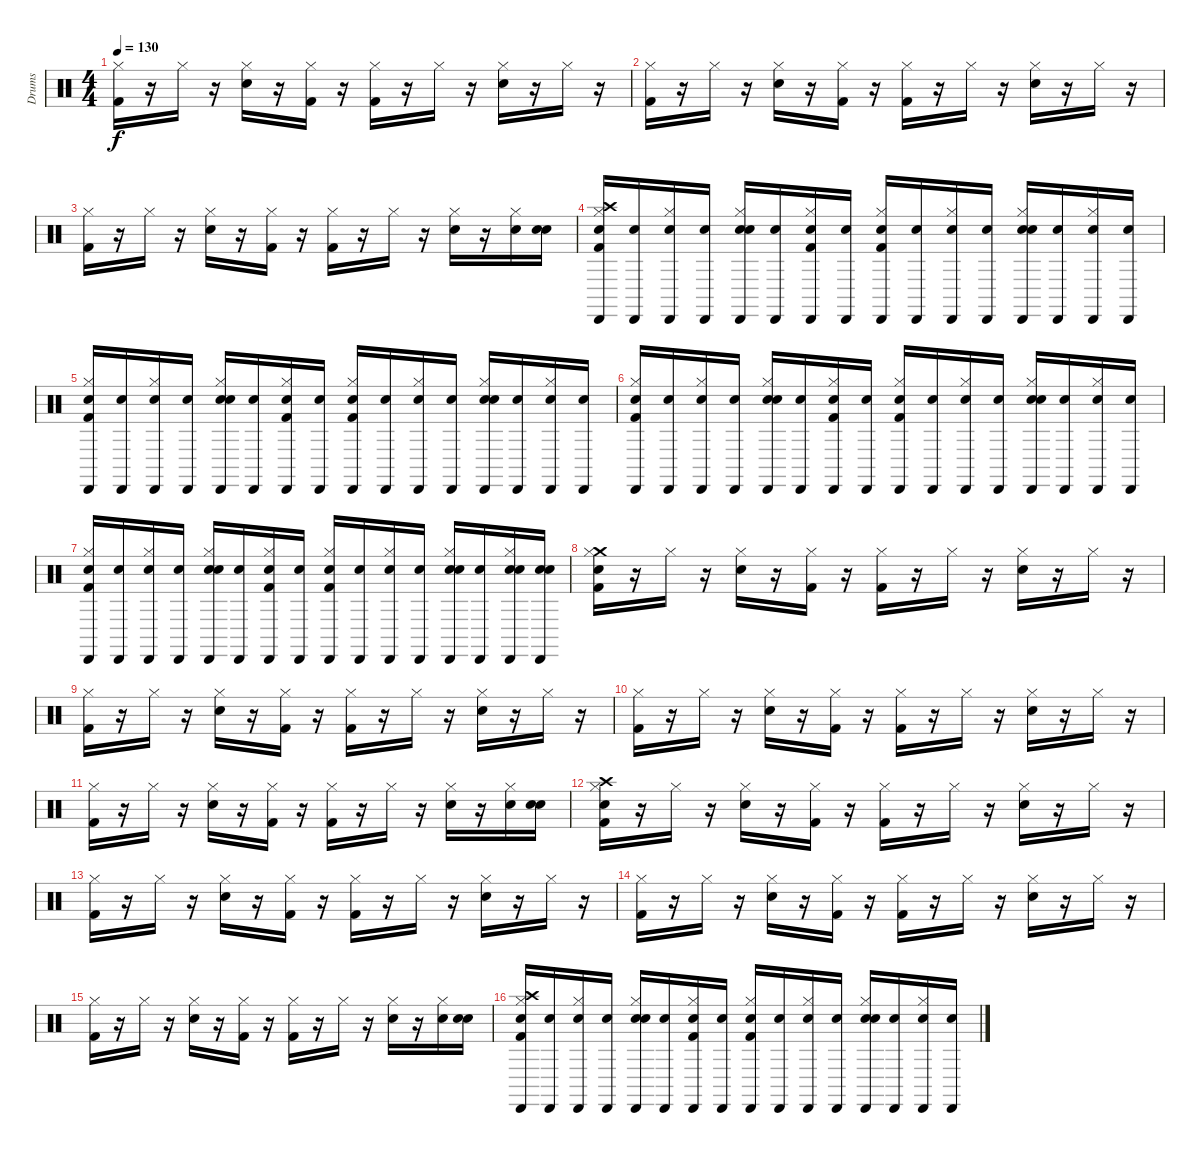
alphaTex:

\track ("Drums" "Drums") {instrument percussion}
\staff {score}
\articulation defaults
\ts (4 4)
\tempo 130
\clef neutral
\ks c
("Kick (hit) 2" "Hi-Hat (closed)").16{dy f} r.16 "Hi-Hat (closed)".16 r.16 ("Hi-Hat (closed)" "Snare (hit) 2").16 r.16 ("Hi-Hat (closed)" "Kick (hit) 2").16 r.16 ("Kick (hit) 2" "Hi-Hat (closed)").16 r.16 "Hi-Hat (closed)".16 r.16 ("Hi-Hat (closed)" "Snare (hit) 2").16 r.16 "Hi-Hat (closed)".16 r.16 |
("Hi-Hat (closed)" "Kick (hit) 2").16 r.16 "Hi-Hat (closed)".16 r.16 ("Hi-Hat (closed)" "Snare (hit) 2").16 r.16 ("Kick (hit) 2" "Hi-Hat (closed)").16 r.16 ("Hi-Hat (closed)" "Kick (hit) 2").16 r.16 "Hi-Hat (closed)".16 r.16 ("Hi-Hat (closed)" "Snare (hit) 2").16 r.16 "Hi-Hat (closed)".16 r.16 |
("Hi-Hat (closed)" "Kick (hit) 2").16 r.16 "Hi-Hat (closed)".16 r.16 ("Hi-Hat (closed)" "Snare (hit) 2").16 r.16 ("Hi-Hat (closed)" "Kick (hit) 2").16 r.16 ("Hi-Hat (closed)" "Kick (hit) 2").16 r.16 "Hi-Hat (closed)".16 r.16 ("Hi-Hat (closed)" "Snare (hit) 2").16 r.16 ("Hi-Hat (closed)" "Snare (hit) 2").16 ("Snare (hit)" "Snare (hit) 2").16 |
("Snare (hit)" "Hi-Hat (closed)" "Crash high (hit)" "Cabasa (hit)" "Kick (hit) 2").16 ("Snare (hit)" "Cabasa (hit)").16 ("Snare (hit)" "Cabasa (hit)" "Hi-Hat (closed)").16 ("Snare (hit)" "Cabasa (hit)").16 ("Snare (hit)" "Snare (hit) 2" "Cabasa (hit)" "Hi-Hat (closed)").16 ("Snare (hit)" "Cabasa (hit)").16 ("Snare (hit)" "Hi-Hat (closed)" "Kick (hit) 2" "Cabasa (hit)").16 ("Snare (hit)" "Cabasa (hit)").16 ("Snare (hit)" "Cabasa (hit)" "Kick (hit) 2" "Hi-Hat (closed)").16 ("Snare (hit)" "Cabasa (hit)").16 ("Snare (hit)" "Hi-Hat (closed)" "Cabasa (hit)").16 ("Snare (hit)" "Cabasa (hit)").16 ("Snare (hit)" "Snare (hit) 2" "Hi-Hat (closed)" "Cabasa (hit)").16 ("Snare (hit)" "Cabasa (hit)").16 ("Snare (hit)" "Cabasa (hit)" "Hi-Hat (closed)").16 ("Snare (hit)" "Cabasa (hit)").16 |
("Snare (hit)" "Kick (hit) 2" "Cabasa (hit)" "Hi-Hat (closed)").16 ("Snare (hit)" "Cabasa (hit)").16 ("Snare (hit)" "Cabasa (hit)" "Hi-Hat (closed)").16 ("Snare (hit)" "Cabasa (hit)").16 ("Snare (hit)" "Snare (hit) 2" "Hi-Hat (closed)" "Cabasa (hit)").16 ("Snare (hit)" "Cabasa (hit)").16 ("Snare (hit)" "Hi-Hat (closed)" "Cabasa (hit)" "Kick (hit) 2").16 ("Snare (hit)" "Cabasa (hit)").16 ("Snare (hit)" "Kick (hit) 2" "Hi-Hat (closed)" "Cabasa (hit)").16 ("Snare (hit)" "Cabasa (hit)").16 ("Snare (hit)" "Cabasa (hit)" "Hi-Hat (closed)").16 ("Snare (hit)" "Cabasa (hit)").16 ("Snare (hit)" "Snare (hit) 2" "Hi-Hat (closed)" "Cabasa (hit)").16 ("Snare (hit)" "Cabasa (hit)").16 ("Snare (hit)" "Hi-Hat (closed)" "Cabasa (hit)").16 ("Snare (hit)" "Cabasa (hit)").16 |
("Snare (hit)" "Kick (hit) 2" "Hi-Hat (closed)" "Cabasa (hit)").16 ("Snare (hit)" "Cabasa (hit)").16 ("Snare (hit)" "Cabasa (hit)" "Hi-Hat (closed)").16 ("Snare (hit)" "Cabasa (hit)").16 ("Snare (hit)" "Hi-Hat (closed)" "Snare (hit) 2" "Cabasa (hit)").16 ("Snare (hit)" "Cabasa (hit)").16 ("Snare (hit)" "Hi-Hat (closed)" "Kick (hit) 2" "Cabasa (hit)").16 ("Snare (hit)" "Cabasa (hit)").16 ("Snare (hit)" "Kick (hit) 2" "Hi-Hat (closed)" "Cabasa (hit)").16 ("Snare (hit)" "Cabasa (hit)").16 ("Snare (hit)" "Cabasa (hit)" "Hi-Hat (closed)").16 ("Snare (hit)" "Cabasa (hit)").16 ("Snare (hit)" "Snare (hit) 2" "Hi-Hat (closed)" "Cabasa (hit)").16 ("Snare (hit)" "Cabasa (hit)").16 ("Snare (hit)" "Cabasa (hit)" "Hi-Hat (closed)").16 ("Snare (hit)" "Cabasa (hit)").16 |
("Snare (hit)" "Hi-Hat (closed)" "Kick (hit) 2" "Cabasa (hit)").16 ("Snare (hit)" "Cabasa (hit)").16 ("Snare (hit)" "Cabasa (hit)" "Hi-Hat (closed)").16 ("Snare (hit)" "Cabasa (hit)").16 ("Snare (hit)" "Cabasa (hit)" "Snare (hit) 2" "Hi-Hat (closed)").16 ("Snare (hit)" "Cabasa (hit)").16 ("Snare (hit)" "Cabasa (hit)" "Hi-Hat (closed)" "Kick (hit) 2").16 ("Snare (hit)" "Cabasa (hit)").16 ("Snare (hit)" "Kick (hit) 2" "Hi-Hat (closed)" "Cabasa (hit)").16 ("Snare (hit)" "Cabasa (hit)").16 ("Snare (hit)" "Hi-Hat (closed)" "Cabasa (hit)").16 ("Snare (hit)" "Cabasa (hit)").16 ("Snare (hit)" "Hi-Hat (closed)" "Snare (hit) 2" "Cabasa (hit)").16 ("Snare (hit)" "Cabasa (hit)").16 ("Snare (hit)" "Hi-Hat (closed)" "Snare (hit) 2" "Cabasa (hit)").16 ("Snare (hit)" "Cabasa (hit)" "Snare (hit) 2").16 |
("Snare (hit)" "Kick (hit) 2" "Crash medium (hit)" "Hi-Hat (closed)").16 r.16 "Hi-Hat (closed)".16 r.16 ("Snare (hit) 2" "Hi-Hat (closed)").16 r.16 ("Kick (hit) 2" "Hi-Hat (closed)").16 r.16 ("Kick (hit) 2" "Hi-Hat (closed)").16 r.16 "Hi-Hat (closed)".16 r.16 ("Snare (hit) 2" "Hi-Hat (closed)").16 r.16 "Hi-Hat (closed)".16 r.16 |
("Hi-Hat (closed)" "Kick (hit) 2").16 r.16 "Hi-Hat (closed)".16 r.16 ("Hi-Hat (closed)" "Snare (hit) 2").16 r.16 ("Hi-Hat (closed)" "Kick (hit) 2").16 r.16 ("Hi-Hat (closed)" "Kick (hit) 2").16 r.16 "Hi-Hat (closed)".16 r.16 ("Snare (hit) 2" "Hi-Hat (closed)").16 r.16 "Hi-Hat (closed)".16 r.16 |
("Kick (hit) 2" "Hi-Hat (closed)").16 r.16 "Hi-Hat (closed)".16 r.16 ("Snare (hit) 2" "Hi-Hat (closed)").16 r.16 ("Kick (hit) 2" "Hi-Hat (closed)").16 r.16 ("Hi-Hat (closed)" "Kick (hit) 2").16 r.16 "Hi-Hat (closed)".16 r.16 ("Hi-Hat (closed)" "Snare (hit) 2").16 r.16 "Hi-Hat (closed)".16 r.16 |
("Kick (hit) 2" "Hi-Hat (closed)").16 r.16 "Hi-Hat (closed)".16 r.16 ("Hi-Hat (closed)" "Snare (hit) 2").16 r.16 ("Hi-Hat (closed)" "Kick (hit) 2").16 r.16 ("Kick (hit) 2" "Hi-Hat (closed)").16 r.16 "Hi-Hat (closed)".16 r.16 ("Snare (hit) 2" "Hi-Hat (closed)").16 r.16 ("Snare (hit) 2" "Hi-Hat (closed)").16 ("Snare (hit)" "Snare (hit) 2").16 |
("Snare (hit)" "Crash high (hit)" "Hi-Hat (closed)" "Kick (hit) 2").16 r.16 "Hi-Hat (closed)".16 r.16 ("Hi-Hat (closed)" "Snare (hit) 2").16 r.16 ("Kick (hit) 2" "Hi-Hat (closed)").16 r.16 ("Hi-Hat (closed)" "Kick (hit) 2").16 r.16 "Hi-Hat (closed)".16 r.16 ("Snare (hit) 2" "Hi-Hat (closed)").16 r.16 "Hi-Hat (closed)".16 r.16 |
("Hi-Hat (closed)" "Kick (hit) 2").16 r.16 "Hi-Hat (closed)".16 r.16 ("Snare (hit) 2" "Hi-Hat (closed)").16 r.16 ("Kick (hit) 2" "Hi-Hat (closed)").16 r.16 ("Kick (hit) 2" "Hi-Hat (closed)").16 r.16 "Hi-Hat (closed)".16 r.16 ("Hi-Hat (closed)" "Snare (hit) 2").16 r.16 "Hi-Hat (closed)".16 r.16 |
("Hi-Hat (closed)" "Kick (hit) 2").16 r.16 "Hi-Hat (closed)".16 r.16 ("Snare (hit) 2" "Hi-Hat (closed)").16 r.16 ("Hi-Hat (closed)" "Kick (hit) 2").16 r.16 ("Hi-Hat (closed)" "Kick (hit) 2").16 r.16 "Hi-Hat (closed)".16 r.16 ("Snare (hit) 2" "Hi-Hat (closed)").16 r.16 "Hi-Hat (closed)".16 r.16 |
("Hi-Hat (closed)" "Kick (hit) 2").16 r.16 "Hi-Hat (closed)".16 r.16 ("Snare (hit) 2" "Hi-Hat (closed)").16 r.16 ("Hi-Hat (closed)" "Kick (hit) 2").16 r.16 ("Hi-Hat (closed)" "Kick (hit) 2").16 r.16 "Hi-Hat (closed)".16 r.16 ("Snare (hit) 2" "Hi-Hat (closed)").16 r.16 ("Hi-Hat (closed)" "Snare (hit) 2").16 ("Snare (hit)" "Snare (hit) 2").16 |
("Snare (hit)" "Kick (hit) 2" "Hi-Hat (closed)" "Cabasa (hit)" "Crash high (hit)").16 ("Snare (hit)" "Cabasa (hit)").16 ("Snare (hit)" "Cabasa (hit)" "Hi-Hat (closed)").16 ("Snare (hit)" "Cabasa (hit)").16 ("Snare (hit)" "Snare (hit) 2" "Hi-Hat (closed)" "Cabasa (hit)").16 ("Snare (hit)" "Cabasa (hit)").16 ("Snare (hit)" "Hi-Hat (closed)" "Kick (hit) 2" "Cabasa (hit)").16 ("Snare (hit)" "Cabasa (hit)").16 ("Snare (hit)" "Hi-Hat (closed)" "Cabasa (hit)" "Kick (hit) 2").16 ("Snare (hit)" "Cabasa (hit)").16 ("Snare (hit)" "Hi-Hat (closed)" "Cabasa (hit)").16 ("Snare (hit)" "Cabasa (hit)").16 ("Snare (hit)" "Snare (hit) 2" "Cabasa (hit)" "Hi-Hat (closed)").16 ("Snare (hit)" "Cabasa (hit)").16 ("Snare (hit)" "Hi-Hat (closed)" "Cabasa (hit)").16 ("Snare (hit)" "Cabasa (hit)").16
